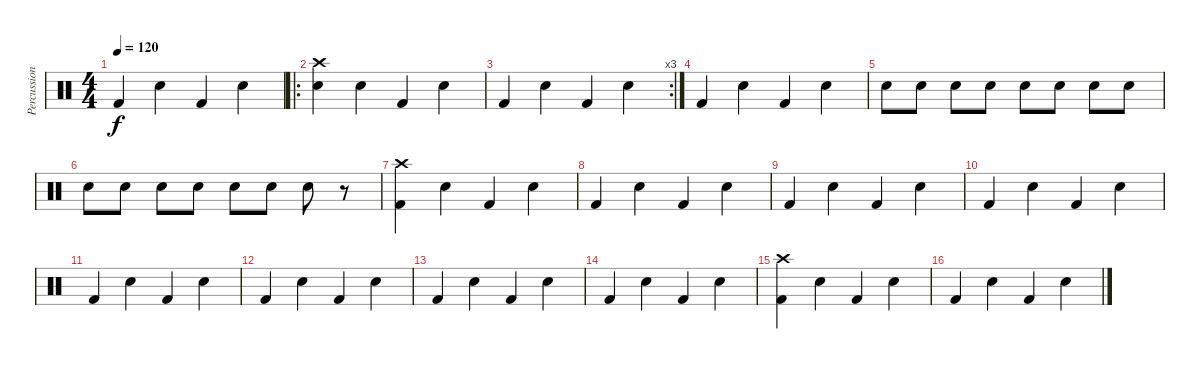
\track ("Percussions" "Percussion") {instrument percussion}
\staff {score}
\articulation defaults
\ts (4 4)
\tempo 120
\clef neutral
\ks c "Kick (hit) 2".4{dy f} "Snare (hit) 2".4 "Kick (hit) 2".4 "Snare (hit) 2".4
|
\ro
("Crash high (hit)" "Snare (hit) 2").4 "Snare (hit) 2".4 "Kick (hit) 2".4 "Snare (hit) 2".4 |
\rc 3 "Kick (hit) 2".4 "Snare (hit) 2".4 "Kick (hit) 2".4 "Snare (hit) 2".4
|
"Kick (hit) 2".4 "Snare (hit) 2".4 "Kick (hit) 2".4 "Snare (hit) 2".4 |
"Snare (hit) 2".8 "Snare (hit) 2".8 "Snare (hit) 2".8 "Snare (hit) 2".8 "Snare (hit) 2".8 "Snare (hit) 2".8 "Snare (hit) 2".8 "Snare (hit) 2".8 |
"Snare (hit) 2".8 "Snare (hit) 2".8 "Snare (hit) 2".8 "Snare (hit) 2".8 "Snare (hit) 2".8 "Snare (hit) 2".8 "Snare (hit) 2".8 r.8 |
("Crash high (hit)" "Kick (hit) 2").4 "Snare (hit) 2".4 "Kick (hit) 2".4 "Snare (hit) 2".4 |
"Kick (hit) 2".4 "Snare (hit) 2".4 "Kick (hit) 2".4 "Snare (hit) 2".4 |
"Kick (hit) 2".4 "Snare (hit) 2".4 "Kick (hit) 2".4 "Snare (hit) 2".4 |
"Kick (hit) 2".4 "Snare (hit) 2".4 "Kick (hit) 2".4 "Snare (hit) 2".4 |
"Kick (hit) 2".4 "Snare (hit) 2".4 "Kick (hit) 2".4 "Snare (hit) 2".4 |
"Kick (hit) 2".4 "Snare (hit) 2".4 "Kick (hit) 2".4 "Snare (hit) 2".4 |
"Kick (hit) 2".4 "Snare (hit) 2".4 "Kick (hit) 2".4 "Snare (hit) 2".4 |
"Kick (hit) 2".4 "Snare (hit) 2".4 "Kick (hit) 2".4 "Snare (hit) 2".4 |
("Crash high (hit)" "Kick (hit) 2").4 "Snare (hit) 2".4 "Kick (hit) 2".4 "Snare (hit) 2".4 |
"Kick (hit) 2".4 "Snare (hit) 2".4 "Kick (hit) 2".4 "Snare (hit) 2".4
